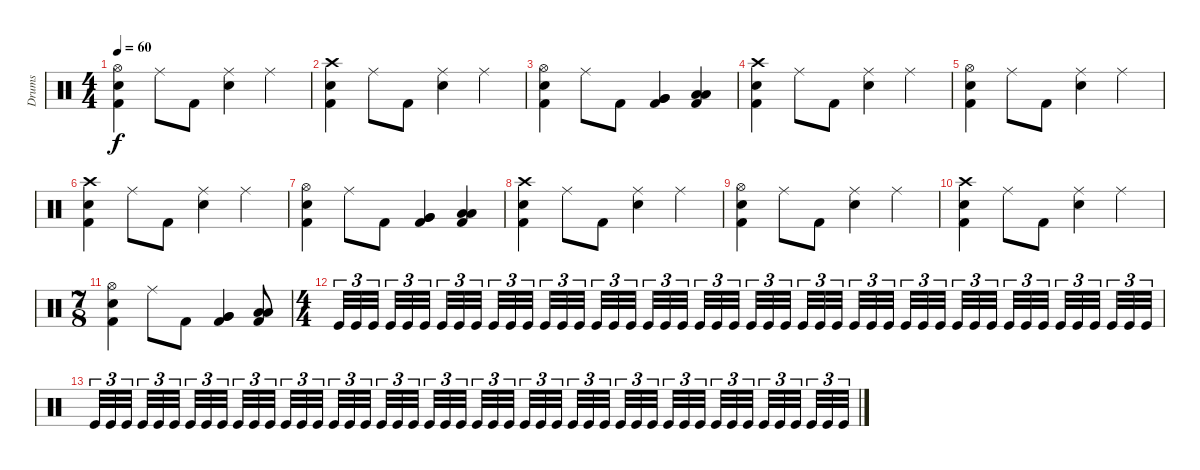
\track ("Drums" "Drums") {instrument percussion}
\staff {score}
\articulation defaults
\ts (4 4)
\tempo 60
\clef neutral
\ks c
("Kick (hit) 2" "Electric Snare (hit)" "Hi-Hat (open)").4{dy f} "Ride (middle)".8 "Kick (hit) 2".8 ("Electric Snare (hit)" "Ride (middle)").4 "Ride (middle)".4 |
("Kick (hit) 2" "Electric Snare (hit)" "Crash high (hit)").4 "Ride (middle)".8 "Kick (hit) 2".8 ("Electric Snare (hit)" "Ride (middle)").4 "Ride (middle)".4 |
("Kick (hit) 2" "Electric Snare (hit)" "Hi-Hat (open)").4 "Ride (middle)".8 "Kick (hit) 2".8 ("Kick (hit) 2" "Very Low Tom (hit)" "Very Low Tom (hit)").4 ("Kick (hit) 2" "Low Floor Tom (hit)" "Low Floor Tom (hit)").4 |
("Kick (hit) 2" "Electric Snare (hit)" "Crash high (hit)").4 "Ride (middle)".8 "Kick (hit) 2".8 ("Electric Snare (hit)" "Ride (middle)").4 "Ride (middle)".4 |
("Kick (hit) 2" "Electric Snare (hit)" "Hi-Hat (open)").4 "Ride (middle)".8 "Kick (hit) 2".8 ("Electric Snare (hit)" "Ride (middle)").4 "Ride (middle)".4 |
("Kick (hit) 2" "Electric Snare (hit)" "Crash high (hit)").4 "Ride (middle)".8 "Kick (hit) 2".8 ("Electric Snare (hit)" "Ride (middle)").4 "Ride (middle)".4 |
("Kick (hit) 2" "Electric Snare (hit)" "Hi-Hat (open)").4 "Ride (middle)".8 "Kick (hit) 2".8 ("Kick (hit) 2" "Very Low Tom (hit)" "Very Low Tom (hit)").4 ("Kick (hit) 2" "Low Floor Tom (hit)" "Low Floor Tom (hit)").4 |
("Kick (hit) 2" "Electric Snare (hit)" "Crash high (hit)").4 "Ride (middle)".8 "Kick (hit) 2".8 ("Electric Snare (hit)" "Ride (middle)").4 "Ride (middle)".4 |
("Kick (hit) 2" "Electric Snare (hit)" "Hi-Hat (open)").4 "Ride (middle)".8 "Kick (hit) 2".8 ("Electric Snare (hit)" "Ride (middle)").4 "Ride (middle)".4 |
("Kick (hit) 2" "Electric Snare (hit)" "Crash high (hit)").4 "Ride (middle)".8 "Kick (hit) 2".8 ("Electric Snare (hit)" "Ride (middle)").4 "Ride (middle)".4 |
\ts (7 8)
("Kick (hit) 2" "Electric Snare (hit)" "Hi-Hat (open)").4 "Ride (middle)".8 "Kick (hit) 2".8 ("Kick (hit) 2" "Very Low Tom (hit)" "Very Low Tom (hit)").4 ("Kick (hit) 2" "Low Floor Tom (hit)" "Low Floor Tom (hit)").8 |
\ts (4 4)
"Kick (hit)".32{tu (3 2)} "Kick (hit)".32{tu (3 2)} "Kick (hit)".32{tu (3 2)} "Kick (hit)".32{tu (3 2)} "Kick (hit)".32{tu (3 2)} "Kick (hit)".32{tu (3 2)} "Kick (hit)".32{tu (3 2)} "Kick (hit)".32{tu (3 2)} "Kick (hit)".32{tu (3 2)} "Kick (hit)".32{tu (3 2)} "Kick (hit)".32{tu (3 2)} "Kick (hit)".32{tu (3 2)} "Kick (hit)".32{tu (3 2)} "Kick (hit)".32{tu (3 2)} "Kick (hit)".32{tu (3 2)} "Kick (hit)".32{tu (3 2)} "Kick (hit)".32{tu (3 2)} "Kick (hit)".32{tu (3 2)} "Kick (hit)".32{tu (3 2)} "Kick (hit)".32{tu (3 2)} "Kick (hit)".32{tu (3 2)} "Kick (hit)".32{tu (3 2)} "Kick (hit)".32{tu (3 2)} "Kick (hit)".32{tu (3 2)} "Kick (hit)".32{tu (3 2)} "Kick (hit)".32{tu (3 2)} "Kick (hit)".32{tu (3 2)} "Kick (hit)".32{tu (3 2)} "Kick (hit)".32{tu (3 2)} "Kick (hit)".32{tu (3 2)} "Kick (hit)".32{tu (3 2)} "Kick (hit)".32{tu (3 2)} "Kick (hit)".32{tu (3 2)} "Kick (hit)".32{tu (3 2)} "Kick (hit)".32{tu (3 2)} "Kick (hit)".32{tu (3 2)} "Kick (hit)".32{tu (3 2)} "Kick (hit)".32{tu (3 2)} "Kick (hit)".32{tu (3 2)} "Kick (hit)".32{tu (3 2)} "Kick (hit)".32{tu (3 2)} "Kick (hit)".32{tu (3 2)} "Kick (hit)".32{tu (3 2)} "Kick (hit)".32{tu (3 2)} "Kick (hit)".32{tu (3 2)} "Kick (hit)".32{tu (3 2)} "Kick (hit)".32{tu (3 2)} "Kick (hit)".32{tu (3 2)} |
"Kick (hit)".32{tu (3 2)} "Kick (hit)".32{tu (3 2)} "Kick (hit)".32{tu (3 2)} "Kick (hit)".32{tu (3 2)} "Kick (hit)".32{tu (3 2)} "Kick (hit)".32{tu (3 2)} "Kick (hit)".32{tu (3 2)} "Kick (hit)".32{tu (3 2)} "Kick (hit)".32{tu (3 2)} "Kick (hit)".32{tu (3 2)} "Kick (hit)".32{tu (3 2)} "Kick (hit)".32{tu (3 2)} "Kick (hit)".32{tu (3 2)} "Kick (hit)".32{tu (3 2)} "Kick (hit)".32{tu (3 2)} "Kick (hit)".32{tu (3 2)} "Kick (hit)".32{tu (3 2)} "Kick (hit)".32{tu (3 2)} "Kick (hit)".32{tu (3 2)} "Kick (hit)".32{tu (3 2)} "Kick (hit)".32{tu (3 2)} "Kick (hit)".32{tu (3 2)} "Kick (hit)".32{tu (3 2)} "Kick (hit)".32{tu (3 2)} "Kick (hit)".32{tu (3 2)} "Kick (hit)".32{tu (3 2)} "Kick (hit)".32{tu (3 2)} "Kick (hit)".32{tu (3 2)} "Kick (hit)".32{tu (3 2)} "Kick (hit)".32{tu (3 2)} "Kick (hit)".32{tu (3 2)} "Kick (hit)".32{tu (3 2)} "Kick (hit)".32{tu (3 2)} "Kick (hit)".32{tu (3 2)} "Kick (hit)".32{tu (3 2)} "Kick (hit)".32{tu (3 2)} "Kick (hit)".32{tu (3 2)} "Kick (hit)".32{tu (3 2)} "Kick (hit)".32{tu (3 2)} "Kick (hit)".32{tu (3 2)} "Kick (hit)".32{tu (3 2)} "Kick (hit)".32{tu (3 2)} "Kick (hit)".32{tu (3 2)} "Kick (hit)".32{tu (3 2)} "Kick (hit)".32{tu (3 2)} "Kick (hit)".32{tu (3 2)} "Kick (hit)".32{tu (3 2)} "Kick (hit)".32{tu (3 2)}
